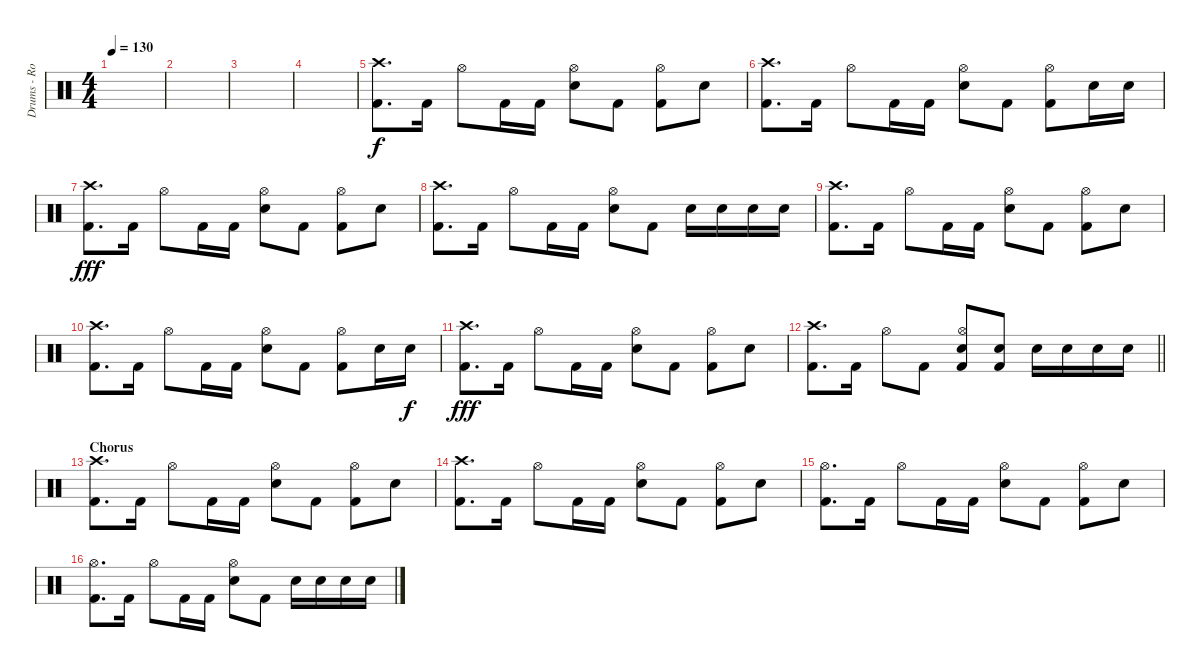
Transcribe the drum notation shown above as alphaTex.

\track ("Drums - Rob Bourdon" "Drums - Ro") {instrument percussion}
\staff {score}
\articulation defaults
\ts (4 4)
\tempo 130
\clef neutral
\ks c
|
|
|
|
("Crash high (hit)" "Kick (hit) 2").8{d} "Kick (hit) 2".16 "Hi-Hat (open)".8 "Kick (hit) 2".16 "Kick (hit) 2".16 ("Hi-Hat (open)" "Snare (hit) 2").8 "Kick (hit) 2".8 ("Hi-Hat (open)" "Kick (hit) 2").8 "Snare (hit) 2".8 |
("Crash high (hit)" "Kick (hit) 2").8{d} "Kick (hit) 2".16 "Hi-Hat (open)".8 "Kick (hit) 2".16 "Kick (hit) 2".16 ("Hi-Hat (open)" "Snare (hit) 2").8 "Kick (hit) 2".8 ("Hi-Hat (open)" "Kick (hit) 2").8 "Snare (hit) 2".16 "Snare (hit) 2".16{dy f} |
("Crash high (hit)" "Kick (hit) 2").8{d dy fff} "Kick (hit) 2".16 "Hi-Hat (open)".8 "Kick (hit) 2".16 "Kick (hit) 2".16 ("Hi-Hat (open)" "Snare (hit) 2").8 "Kick (hit) 2".8 ("Hi-Hat (open)" "Kick (hit) 2").8 "Snare (hit) 2".8 |
("Crash high (hit)" "Kick (hit) 2").8{d} "Kick (hit) 2".16 "Hi-Hat (open)".8 "Kick (hit) 2".16 "Kick (hit) 2".16 ("Hi-Hat (open)" "Snare (hit) 2").8 "Kick (hit) 2".8 "Snare (hit) 2".16 "Snare (hit) 2".16 "Snare (hit) 2".16 "Snare (hit) 2".16 |
("Crash high (hit)" "Kick (hit) 2").8{d} "Kick (hit) 2".16 "Hi-Hat (open)".8 "Kick (hit) 2".16 "Kick (hit) 2".16 ("Hi-Hat (open)" "Snare (hit) 2").8 "Kick (hit) 2".8 ("Hi-Hat (open)" "Kick (hit) 2").8 "Snare (hit) 2".8 |
("Crash high (hit)" "Kick (hit) 2").8{d} "Kick (hit) 2".16 "Hi-Hat (open)".8 "Kick (hit) 2".16 "Kick (hit) 2".16 ("Hi-Hat (open)" "Snare (hit) 2").8 "Kick (hit) 2".8 ("Hi-Hat (open)" "Kick (hit) 2").8 "Snare (hit) 2".16 "Snare (hit) 2".16{dy f} |
("Crash high (hit)" "Kick (hit) 2").8{d dy fff} "Kick (hit) 2".16 "Hi-Hat (open)".8 "Kick (hit) 2".16 "Kick (hit) 2".16 ("Hi-Hat (open)" "Snare (hit) 2").8 "Kick (hit) 2".8 ("Hi-Hat (open)" "Kick (hit) 2").8 "Snare (hit) 2".8 |
\barLineRight lightlight
("Crash high (hit)" "Kick (hit) 2").8{d} "Kick (hit) 2".16 "Hi-Hat (open)".8 "Kick (hit) 2".8 ("Hi-Hat (open)" "Snare (hit) 2" "Kick (hit) 2").8 ("Snare (hit) 2" "Kick (hit) 2").8 "Snare (hit) 2".16 "Snare (hit) 2".16 "Snare (hit) 2".16 "Snare (hit) 2".16 |
\section ("" "Chorus")
("Crash high (hit)" "Kick (hit) 2").8{d} "Kick (hit) 2".16 "Hi-Hat (open)".8 "Kick (hit) 2".16 "Kick (hit) 2".16 ("Hi-Hat (open)" "Snare (hit) 2").8 "Kick (hit) 2".8 ("Hi-Hat (open)" "Kick (hit) 2").8 "Snare (hit) 2".8 |
("Crash high (hit)" "Kick (hit) 2").8{d} "Kick (hit) 2".16 "Hi-Hat (open)".8 "Kick (hit) 2".16 "Kick (hit) 2".16 ("Hi-Hat (open)" "Snare (hit) 2").8 "Kick (hit) 2".8 ("Hi-Hat (open)" "Kick (hit) 2").8 "Snare (hit) 2".8 |
("Hi-Hat (open)" "Kick (hit) 2").8{d} "Kick (hit) 2".16 "Hi-Hat (open)".8 "Kick (hit) 2".16 "Kick (hit) 2".16 ("Hi-Hat (open)" "Snare (hit) 2").8 "Kick (hit) 2".8 ("Hi-Hat (open)" "Kick (hit) 2").8 "Snare (hit) 2".8 |
("Hi-Hat (open)" "Kick (hit) 2").8{d} "Kick (hit) 2".16 "Hi-Hat (open)".8 "Kick (hit) 2".16 "Kick (hit) 2".16 ("Hi-Hat (open)" "Snare (hit) 2").8 "Kick (hit) 2".8 "Snare (hit) 2".16 "Snare (hit) 2".16 "Snare (hit) 2".16 "Snare (hit) 2".16
